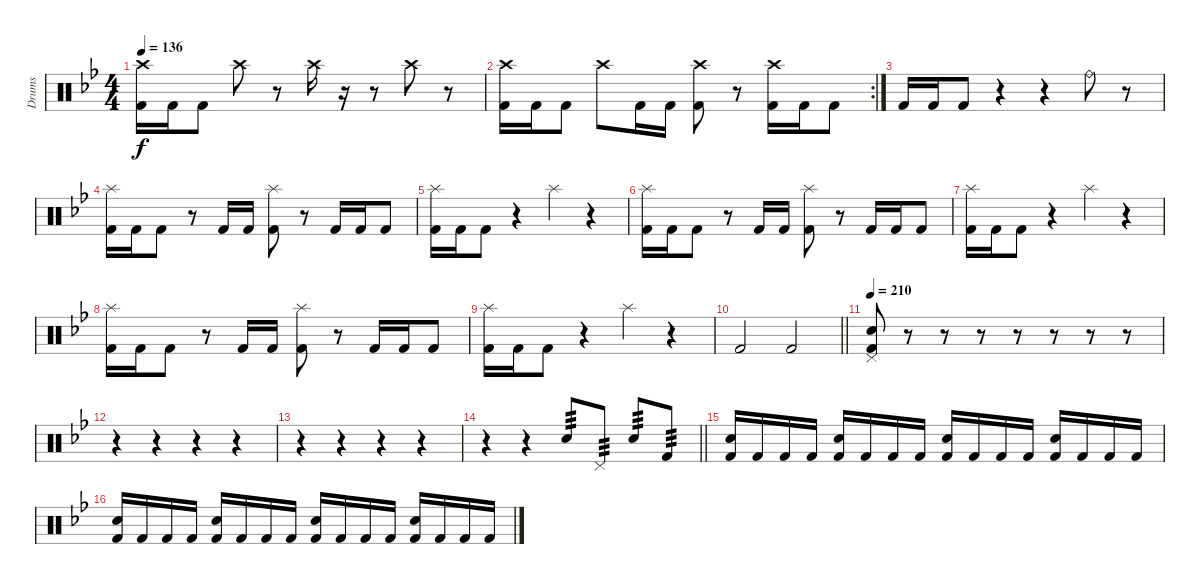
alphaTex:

\track ("Drums" "Drums") {instrument percussion}
\staff {score}
\articulation defaults
\ts (4 4)
\tempo 136
\clef neutral
\ks bb
("Crash high (hit)" "Kick (hit) 2").16{dy f} "Kick (hit) 2".16 "Kick (hit) 2".8 "Crash high (hit)".8 r.8 "Crash high (hit)".16 r.16 r.8 "Crash high (hit)".8 r.8 |
\rc 2
("Crash high (hit)" "Kick (hit) 2").16 "Kick (hit) 2".16 "Kick (hit) 2".8 "Crash high (hit)".8 "Kick (hit) 2".16 "Kick (hit) 2".16 ("Crash high (hit)" "Kick (hit) 2").8 r.8 ("Crash high (hit)" "Kick (hit) 2").16 "Kick (hit) 2".16 "Kick (hit) 2".8 |
"Kick (hit) 2".16 "Kick (hit) 2".16 "Kick (hit) 2".8 r.4 r.4 "Ride (bell)".8 r.8 |
("Splash (hit)" "Kick (hit) 2").16 "Kick (hit) 2".16 "Kick (hit) 2".8 r.8 "Kick (hit) 2".16 "Kick (hit) 2".16 ("Splash (hit)" "Kick (hit) 2").8 r.8 "Kick (hit) 2".16 "Kick (hit) 2".16 "Kick (hit) 2".8 |
("Splash (hit)" "Kick (hit) 2").16 "Kick (hit) 2".16 "Kick (hit) 2".8 r.4 "Splash (hit)".4 r.4 |
("Splash (hit)" "Kick (hit) 2").16 "Kick (hit) 2".16 "Kick (hit) 2".8 r.8 "Kick (hit) 2".16 "Kick (hit) 2".16 ("Splash (hit)" "Kick (hit) 2").8 r.8 "Kick (hit) 2".16 "Kick (hit) 2".16 "Kick (hit) 2".8 |
("Splash (hit)" "Kick (hit) 2").16 "Kick (hit) 2".16 "Kick (hit) 2".8 r.4 "Splash (hit)".4 r.4 |
("Splash (hit)" "Kick (hit) 2").16 "Kick (hit) 2".16 "Kick (hit) 2".8 r.8 "Kick (hit) 2".16 "Kick (hit) 2".16 ("Splash (hit)" "Kick (hit) 2").8 r.8 "Kick (hit) 2".16 "Kick (hit) 2".16 "Kick (hit) 2".8 |
("Splash (hit)" "Kick (hit) 2").16 "Kick (hit) 2".16 "Kick (hit) 2".8 r.4 "Splash (hit)".4 r.4 |
\barLineRight lightlight "Kick (hit) 2".2 "Kick (hit) 2".2
|
\tempo 210
("Pedal Hi-Hat (hit)" "Electric Snare (hit)" "Kick (hit) 2").8 r.8 r.8 r.8 r.8 r.8 r.8 r.8 |
r.4 r.4 r.4 r.4 |
r.4 r.4 r.4 r.4 |
\barLineRight lightlight
r.4 r.4 "Electric Snare (hit)".8{tp 3} "Pedal Hi-Hat (hit)".8{tp 3} "Electric Snare (hit)".8{tp 3} "Kick (hit) 2".8{tp 3} |
("Electric Snare (hit)" "Kick (hit) 2").16 "Kick (hit) 2".16 "Kick (hit) 2".16 "Kick (hit) 2".16 ("Electric Snare (hit)" "Kick (hit) 2").16 "Kick (hit) 2".16 "Kick (hit) 2".16 "Kick (hit) 2".16 ("Electric Snare (hit)" "Kick (hit) 2").16 "Kick (hit) 2".16 "Kick (hit) 2".16 "Kick (hit) 2".16 ("Electric Snare (hit)" "Kick (hit) 2").16 "Kick (hit) 2".16 "Kick (hit) 2".16 "Kick (hit) 2".16 |
("Electric Snare (hit)" "Kick (hit) 2").16 "Kick (hit) 2".16 "Kick (hit) 2".16 "Kick (hit) 2".16 ("Electric Snare (hit)" "Kick (hit) 2").16 "Kick (hit) 2".16 "Kick (hit) 2".16 "Kick (hit) 2".16 ("Electric Snare (hit)" "Kick (hit) 2").16 "Kick (hit) 2".16 "Kick (hit) 2".16 "Kick (hit) 2".16 ("Electric Snare (hit)" "Kick (hit) 2").16 "Kick (hit) 2".16 "Kick (hit) 2".16 "Kick (hit) 2".16
